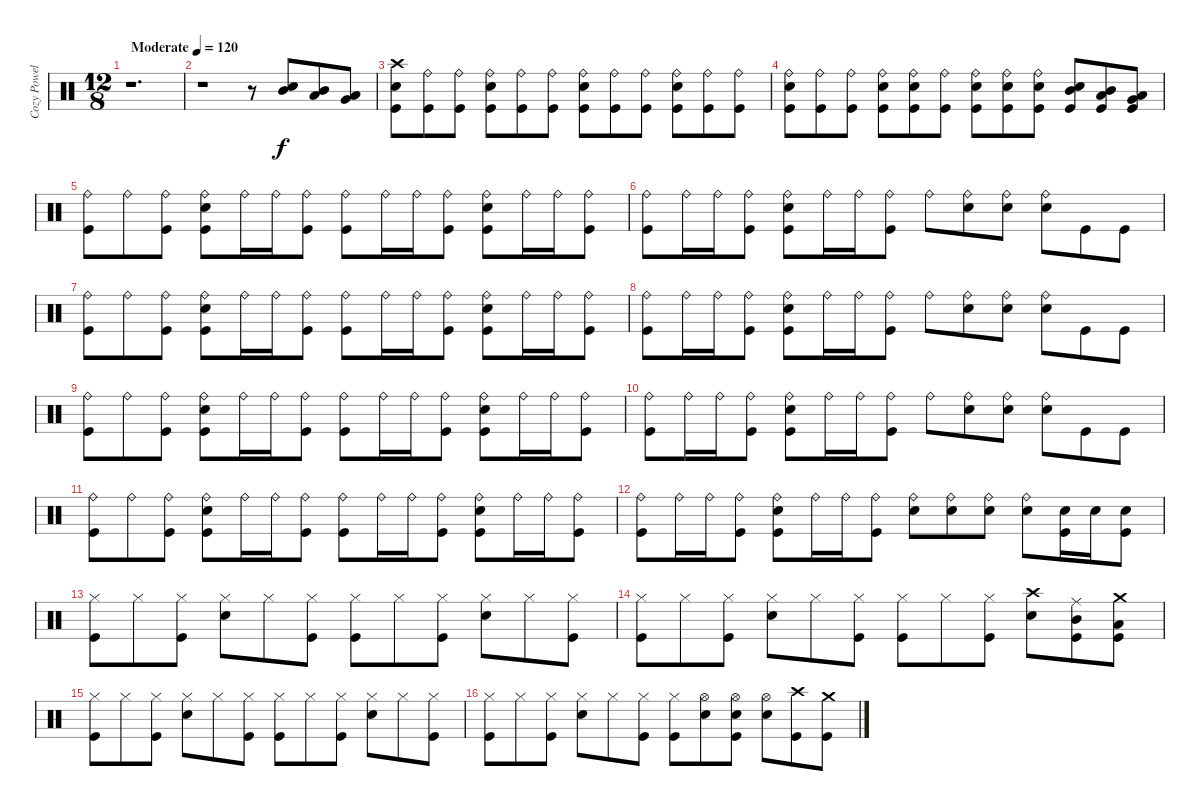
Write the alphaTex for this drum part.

\track ("Cozy Powell" "Cozy Powel") {instrument percussion}
\staff {score}
\articulation defaults
\ts (12 8)
\tempo (120 "Moderate")
\clef neutral
\ks c
r.1{d dy f} |
r.1 r.8 ("Snare (hit) 2" "Mid Tom (hit)").8 ("Mid Tom (hit)" "Low Tom (hit)").8 ("Low Tom (hit)" "Very Low Tom (hit)").8 |
("Crash high (hit)" "Snare (hit) 2" "Kick (hit)").8 ("Ride (bell)" "Kick (hit)").8 ("Ride (bell)" "Kick (hit)").8 ("Ride (bell)" "Snare (hit) 2" "Kick (hit)").8 ("Ride (bell)" "Kick (hit)").8 ("Ride (bell)" "Kick (hit)").8 ("Ride (bell)" "Snare (hit) 2" "Kick (hit)").8 ("Ride (bell)" "Kick (hit)").8 ("Ride (bell)" "Kick (hit)").8 ("Ride (bell)" "Snare (hit) 2" "Kick (hit)").8 ("Ride (bell)" "Kick (hit)").8 ("Ride (bell)" "Kick (hit)").8 |
("Ride (bell)" "Snare (hit) 2" "Kick (hit)").8 ("Ride (bell)" "Kick (hit)").8 ("Ride (bell)" "Kick (hit)").8 ("Ride (bell)" "Snare (hit) 2" "Kick (hit)").8 ("Ride (bell)" "Snare (hit) 2" "Kick (hit)").8 ("Ride (bell)" "Kick (hit)").8 ("Ride (bell)" "Snare (hit) 2" "Kick (hit)").8 ("Ride (bell)" "Snare (hit) 2" "Kick (hit)").8 ("Ride (bell)" "Snare (hit) 2" "Kick (hit)").8 ("Snare (hit) 2" "Mid Tom (hit)" "Kick (hit)").8 ("Mid Tom (hit)" "Low Tom (hit)" "Kick (hit)").8 ("Low Tom (hit)" "Very Low Tom (hit)" "Kick (hit)").8 |
("Ride (bell)" "Kick (hit)").8 "Ride (bell)".8 ("Ride (bell)" "Kick (hit)").8 ("Ride (bell)" "Snare (hit) 2" "Kick (hit)").8 "Ride (bell)".16 "Ride (bell)".16 ("Ride (bell)" "Kick (hit)").8 ("Ride (bell)" "Kick (hit)").8 "Ride (bell)".16 "Ride (bell)".16 ("Ride (bell)" "Kick (hit)").8 ("Ride (bell)" "Snare (hit) 2" "Kick (hit)").8 "Ride (bell)".16 "Ride (bell)".16 ("Ride (bell)" "Kick (hit)").8 |
("Ride (bell)" "Kick (hit)").8 "Ride (bell)".16 "Ride (bell)".16 ("Ride (bell)" "Kick (hit)").8 ("Ride (bell)" "Snare (hit) 2" "Kick (hit)").8 "Ride (bell)".16 "Ride (bell)".16 ("Ride (bell)" "Kick (hit)").8 "Ride (bell)".8 ("Ride (bell)" "Snare (hit) 2").8 ("Ride (bell)" "Snare (hit) 2").8 ("Ride (bell)" "Snare (hit) 2").8 "Kick (hit)".8 "Kick (hit)".8 |
("Ride (bell)" "Kick (hit)").8 "Ride (bell)".8 ("Ride (bell)" "Kick (hit)").8 ("Ride (bell)" "Snare (hit) 2" "Kick (hit)").8 "Ride (bell)".16 "Ride (bell)".16 ("Ride (bell)" "Kick (hit)").8 ("Ride (bell)" "Kick (hit)").8 "Ride (bell)".16 "Ride (bell)".16 ("Ride (bell)" "Kick (hit)").8 ("Ride (bell)" "Snare (hit) 2" "Kick (hit)").8 "Ride (bell)".16 "Ride (bell)".16 ("Ride (bell)" "Kick (hit)").8 |
("Ride (bell)" "Kick (hit)").8 "Ride (bell)".16 "Ride (bell)".16 ("Ride (bell)" "Kick (hit)").8 ("Ride (bell)" "Snare (hit) 2" "Kick (hit)").8 "Ride (bell)".16 "Ride (bell)".16 ("Ride (bell)" "Kick (hit)").8 "Ride (bell)".8 ("Ride (bell)" "Snare (hit) 2").8 ("Ride (bell)" "Snare (hit) 2").8 ("Ride (bell)" "Snare (hit) 2").8 "Kick (hit)".8 "Kick (hit)".8 |
("Ride (bell)" "Kick (hit)").8 "Ride (bell)".8 ("Ride (bell)" "Kick (hit)").8 ("Ride (bell)" "Snare (hit) 2" "Kick (hit)").8 "Ride (bell)".16 "Ride (bell)".16 ("Ride (bell)" "Kick (hit)").8 ("Ride (bell)" "Kick (hit)").8 "Ride (bell)".16 "Ride (bell)".16 ("Ride (bell)" "Kick (hit)").8 ("Ride (bell)" "Snare (hit) 2" "Kick (hit)").8 "Ride (bell)".16 "Ride (bell)".16 ("Ride (bell)" "Kick (hit)").8 |
("Ride (bell)" "Kick (hit)").8 "Ride (bell)".16 "Ride (bell)".16 ("Ride (bell)" "Kick (hit)").8 ("Ride (bell)" "Snare (hit) 2" "Kick (hit)").8 "Ride (bell)".16 "Ride (bell)".16 ("Ride (bell)" "Kick (hit)").8 "Ride (bell)".8 ("Ride (bell)" "Snare (hit) 2").8 ("Ride (bell)" "Snare (hit) 2").8 ("Ride (bell)" "Snare (hit) 2").8 "Kick (hit)".8 "Kick (hit)".8 |
("Ride (bell)" "Kick (hit)").8 "Ride (bell)".8 ("Ride (bell)" "Kick (hit)").8 ("Ride (bell)" "Snare (hit) 2" "Kick (hit)").8 "Ride (bell)".16 "Ride (bell)".16 ("Ride (bell)" "Kick (hit)").8 ("Ride (bell)" "Kick (hit)").8 "Ride (bell)".16 "Ride (bell)".16 ("Ride (bell)" "Kick (hit)").8 ("Ride (bell)" "Snare (hit) 2" "Kick (hit)").8 "Ride (bell)".16 "Ride (bell)".16 ("Ride (bell)" "Kick (hit)").8 |
("Ride (bell)" "Kick (hit)").8 "Ride (bell)".16 "Ride (bell)".16 ("Ride (bell)" "Kick (hit)").8 ("Ride (bell)" "Snare (hit) 2" "Kick (hit)").8 "Ride (bell)".16 "Ride (bell)".16 ("Ride (bell)" "Kick (hit)").8 ("Ride (bell)" "Snare (hit) 2").8 ("Ride (bell)" "Snare (hit) 2").8 ("Ride (bell)" "Snare (hit) 2").8 ("Ride (bell)" "Snare (hit) 2").8 ("Snare (hit) 2" "Kick (hit)").16 "Snare (hit) 2".16 ("Snare (hit) 2" "Kick (hit)").8 |
("Hi-Hat (closed)" "Kick (hit)").8 "Hi-Hat (closed)".8 ("Hi-Hat (closed)" "Kick (hit)").8 ("Hi-Hat (closed)" "Snare (hit) 2").8 "Hi-Hat (closed)".8 ("Hi-Hat (closed)" "Kick (hit)").8 ("Hi-Hat (closed)" "Kick (hit)").8 "Hi-Hat (closed)".8 ("Hi-Hat (closed)" "Kick (hit)").8 ("Hi-Hat (closed)" "Snare (hit) 2").8 "Hi-Hat (closed)".8 ("Hi-Hat (closed)" "Kick (hit)").8 |
("Hi-Hat (closed)" "Kick (hit)").8 "Hi-Hat (closed)".8 ("Hi-Hat (closed)" "Kick (hit)").8 ("Hi-Hat (closed)" "Snare (hit) 2").8 "Hi-Hat (closed)".8 ("Hi-Hat (closed)" "Kick (hit)").8 ("Hi-Hat (closed)" "Kick (hit)").8 "Hi-Hat (closed)".8 ("Hi-Hat (closed)" "Kick (hit)").8 ("Crash high (hit)" "Snare (hit) 2").8 ("Ride (middle)" "Mid Tom (hit)" "Kick (hit)").8 ("Crash medium (hit)" "Low Tom (hit)" "Kick (hit)").8 |
("Hi-Hat (closed)" "Kick (hit)").8 "Hi-Hat (closed)".8 ("Hi-Hat (closed)" "Kick (hit)").8 ("Hi-Hat (closed)" "Snare (hit) 2").8 "Hi-Hat (closed)".8 ("Hi-Hat (closed)" "Kick (hit)").8 ("Hi-Hat (closed)" "Kick (hit)").8 "Hi-Hat (closed)".8 ("Hi-Hat (closed)" "Kick (hit)").8 ("Hi-Hat (closed)" "Snare (hit) 2").8 "Hi-Hat (closed)".8 ("Hi-Hat (closed)" "Kick (hit)").8 |
("Hi-Hat (closed)" "Kick (hit)").8 "Hi-Hat (closed)".8 ("Hi-Hat (closed)" "Kick (hit)").8 ("Hi-Hat (closed)" "Snare (hit) 2").8 "Hi-Hat (closed)".8 ("Hi-Hat (closed)" "Kick (hit)").8 ("Hi-Hat (closed)" "Kick (hit)").8 ("Hi-Hat (open)" "Snare (hit) 2").8 ("Hi-Hat (open)" "Snare (hit) 2" "Kick (hit)").8 ("Hi-Hat (open)" "Snare (hit) 2").8 ("Crash high (hit)" "Kick (hit)").8 ("Crash medium (hit)" "Kick (hit)").8
